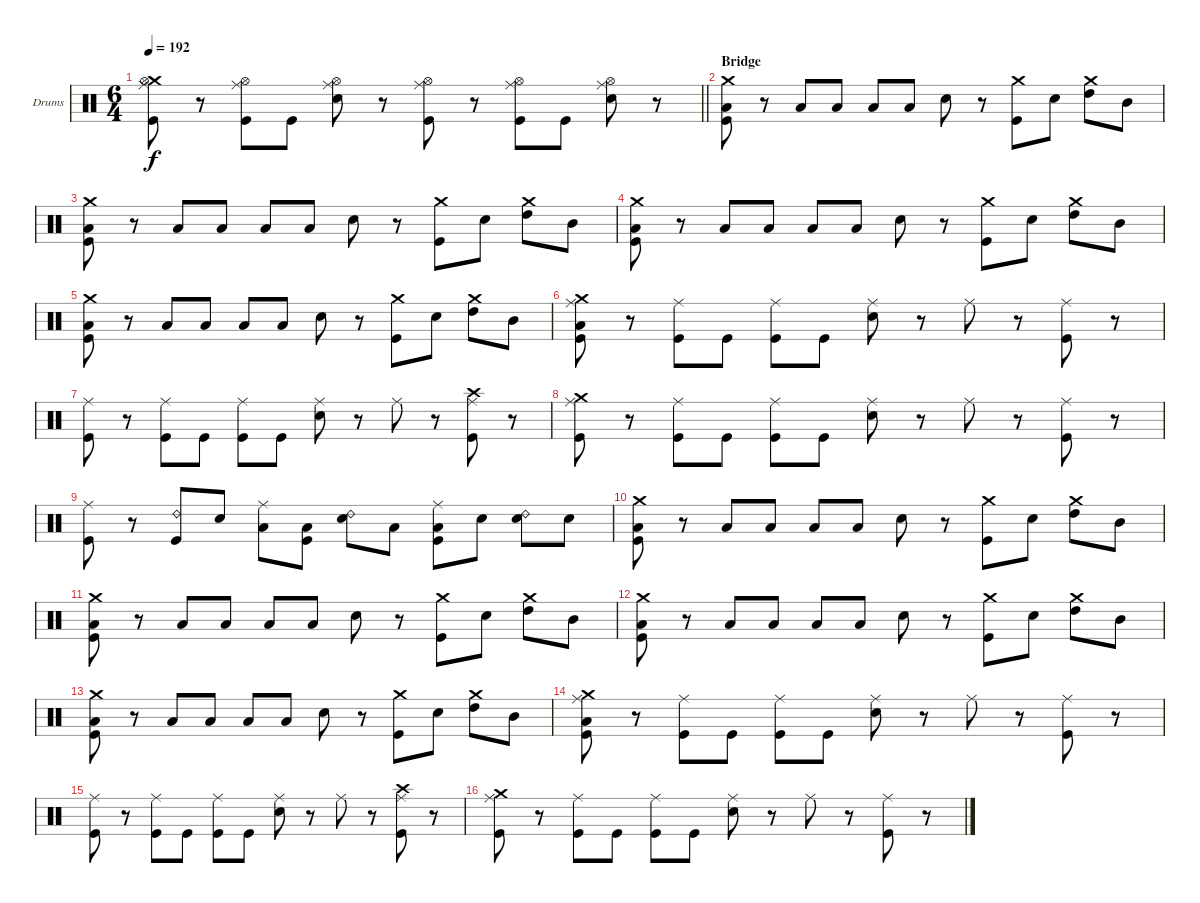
\bracketExtendMode groupsimilarinstruments
\firstSystemTrackNameOrientation horizontal
\otherSystemsTrackNameOrientation horizontal
\track ("Drumkit" "Drums") {instrument percussion}
\staff {score}
\articulation defaults
\ts (6 4)
\tempo 192
\clef neutral
\barLineRight lightlight
\ks c
("Crash medium (hit)" "Ride (middle)" "Hi-Hat (open)" "Kick (hit)").8{dy f} r.8 ("Ride (middle)" "Hi-Hat (open)" "Kick (hit)").8 "Kick (hit)".8 ("Ride (middle)" "Hi-Hat (open)" "Snare (hit) 2").8 r.8 ("Ride (middle)" "Hi-Hat (open)" "Kick (hit)").8 r.8 ("Ride (middle)" "Hi-Hat (open)" "Kick (hit)").8 "Kick (hit)".8 ("Ride (middle)" "Hi-Hat (open)" "Snare (hit) 2").8 r.8 |
\section ("" "Bridge")
("Crash medium (hit)" "Low Tom (hit)" "Kick (hit)").8 r.8 "Low Tom (hit)".8 "Low Tom (hit)".8 "Low Tom (hit)".8 "Low Tom (hit)".8 "Snare (hit) 2".8 r.8 ("Crash medium (hit)" "Kick (hit)").8 "Snare (hit) 2".8 ("Crash medium (hit)" "High Tom (hit)").8 "Mid Tom (hit)".8 |
("Crash medium (hit)" "Low Tom (hit)" "Kick (hit)").8 r.8 "Low Tom (hit)".8 "Low Tom (hit)".8 "Low Tom (hit)".8 "Low Tom (hit)".8 "Snare (hit) 2".8 r.8 ("Crash medium (hit)" "Kick (hit)").8 "Snare (hit) 2".8 ("Crash medium (hit)" "High Tom (hit)").8 "Mid Tom (hit)".8 |
("Crash medium (hit)" "Low Tom (hit)" "Kick (hit)").8 r.8 "Low Tom (hit)".8 "Low Tom (hit)".8 "Low Tom (hit)".8 "Low Tom (hit)".8 "Snare (hit) 2".8 r.8 ("Crash medium (hit)" "Kick (hit)").8 "Snare (hit) 2".8 ("Crash medium (hit)" "High Tom (hit)").8 "Mid Tom (hit)".8 |
("Crash medium (hit)" "Low Tom (hit)" "Kick (hit)").8 r.8 "Low Tom (hit)".8 "Low Tom (hit)".8 "Low Tom (hit)".8 "Low Tom (hit)".8 "Snare (hit) 2".8 r.8 ("Crash medium (hit)" "Kick (hit)").8 "Snare (hit) 2".8 ("Crash medium (hit)" "High Tom (hit)").8 "Mid Tom (hit)".8 |
("Crash medium (hit)" "Ride (middle)" "Low Tom (hit)" "Kick (hit)").8 r.8 ("Ride (middle)" "Kick (hit)").8 "Kick (hit)".8 ("Ride (middle)" "Kick (hit)").8 "Kick (hit)".8 ("Ride (middle)" "Snare (hit) 2").8 r.8 "Ride (middle)".8 r.8 ("Ride (middle)" "Kick (hit)").8 r.8 |
("Ride (middle)" "Kick (hit)").8 r.8 ("Ride (middle)" "Kick (hit)").8 "Kick (hit)".8 ("Ride (middle)" "Kick (hit)").8 "Kick (hit)".8 ("Ride (middle)" "Snare (hit) 2").8 r.8 "Ride (middle)".8 r.8 ("Crash high (hit)" "Ride (middle)" "Kick (hit)").8 r.8 |
("Crash medium (hit)" "Ride (middle)" "Kick (hit)").8 r.8 ("Ride (middle)" "Kick (hit)").8 "Kick (hit)".8 ("Ride (middle)" "Kick (hit)").8 "Kick (hit)".8 ("Ride (middle)" "Snare (hit) 2").8 r.8 "Ride (middle)".8 r.8 ("Ride (middle)" "Kick (hit)").8 r.8 |
("Ride (middle)" "Kick (hit)").8 r.8 ("Ride (bell) 2" "Kick (hit)").8 "Snare (hit) 2".8 ("Ride (middle)" "Low Tom (hit)").8 ("Low Tom (hit)" "Kick (hit)").8 ("Ride (bell) 2" "Snare (hit) 2").8 "Low Tom (hit)".8 ("Ride (middle)" "Low Tom (hit)" "Kick (hit)").8 "Snare (hit) 2".8 ("Ride (bell) 2" "Snare (hit) 2").8 "Snare (hit) 2".8 |
("Crash medium (hit)" "Low Tom (hit)" "Kick (hit)").8 r.8 "Low Tom (hit)".8 "Low Tom (hit)".8 "Low Tom (hit)".8 "Low Tom (hit)".8 "Snare (hit) 2".8 r.8 ("Crash medium (hit)" "Kick (hit)").8 "Snare (hit) 2".8 ("Crash medium (hit)" "High Tom (hit)").8 "Mid Tom (hit)".8 |
("Crash medium (hit)" "Low Tom (hit)" "Kick (hit)").8 r.8 "Low Tom (hit)".8 "Low Tom (hit)".8 "Low Tom (hit)".8 "Low Tom (hit)".8 "Snare (hit) 2".8 r.8 ("Crash medium (hit)" "Kick (hit)").8 "Snare (hit) 2".8 ("Crash medium (hit)" "High Tom (hit)").8 "Mid Tom (hit)".8 |
("Crash medium (hit)" "Low Tom (hit)" "Kick (hit)").8 r.8 "Low Tom (hit)".8 "Low Tom (hit)".8 "Low Tom (hit)".8 "Low Tom (hit)".8 "Snare (hit) 2".8 r.8 ("Crash medium (hit)" "Kick (hit)").8 "Snare (hit) 2".8 ("Crash medium (hit)" "High Tom (hit)").8 "Mid Tom (hit)".8 |
("Crash medium (hit)" "Low Tom (hit)" "Kick (hit)").8 r.8 "Low Tom (hit)".8 "Low Tom (hit)".8 "Low Tom (hit)".8 "Low Tom (hit)".8 "Snare (hit) 2".8 r.8 ("Crash medium (hit)" "Kick (hit)").8 "Snare (hit) 2".8 ("Crash medium (hit)" "High Tom (hit)").8 "Mid Tom (hit)".8 |
("Crash medium (hit)" "Ride (middle)" "Low Tom (hit)" "Kick (hit)").8 r.8 ("Ride (middle)" "Kick (hit)").8 "Kick (hit)".8 ("Ride (middle)" "Kick (hit)").8 "Kick (hit)".8 ("Ride (middle)" "Snare (hit) 2").8 r.8 "Ride (middle)".8 r.8 ("Ride (middle)" "Kick (hit)").8 r.8 |
("Ride (middle)" "Kick (hit)").8 r.8 ("Ride (middle)" "Kick (hit)").8 "Kick (hit)".8 ("Ride (middle)" "Kick (hit)").8 "Kick (hit)".8 ("Ride (middle)" "Snare (hit) 2").8 r.8 "Ride (middle)".8 r.8 ("Crash high (hit)" "Ride (middle)" "Kick (hit)").8 r.8 |
("Crash medium (hit)" "Ride (middle)" "Kick (hit)").8 r.8 ("Ride (middle)" "Kick (hit)").8 "Kick (hit)".8 ("Ride (middle)" "Kick (hit)").8 "Kick (hit)".8 ("Ride (middle)" "Snare (hit) 2").8 r.8 "Ride (middle)".8 r.8 ("Ride (middle)" "Kick (hit)").8 r.8
